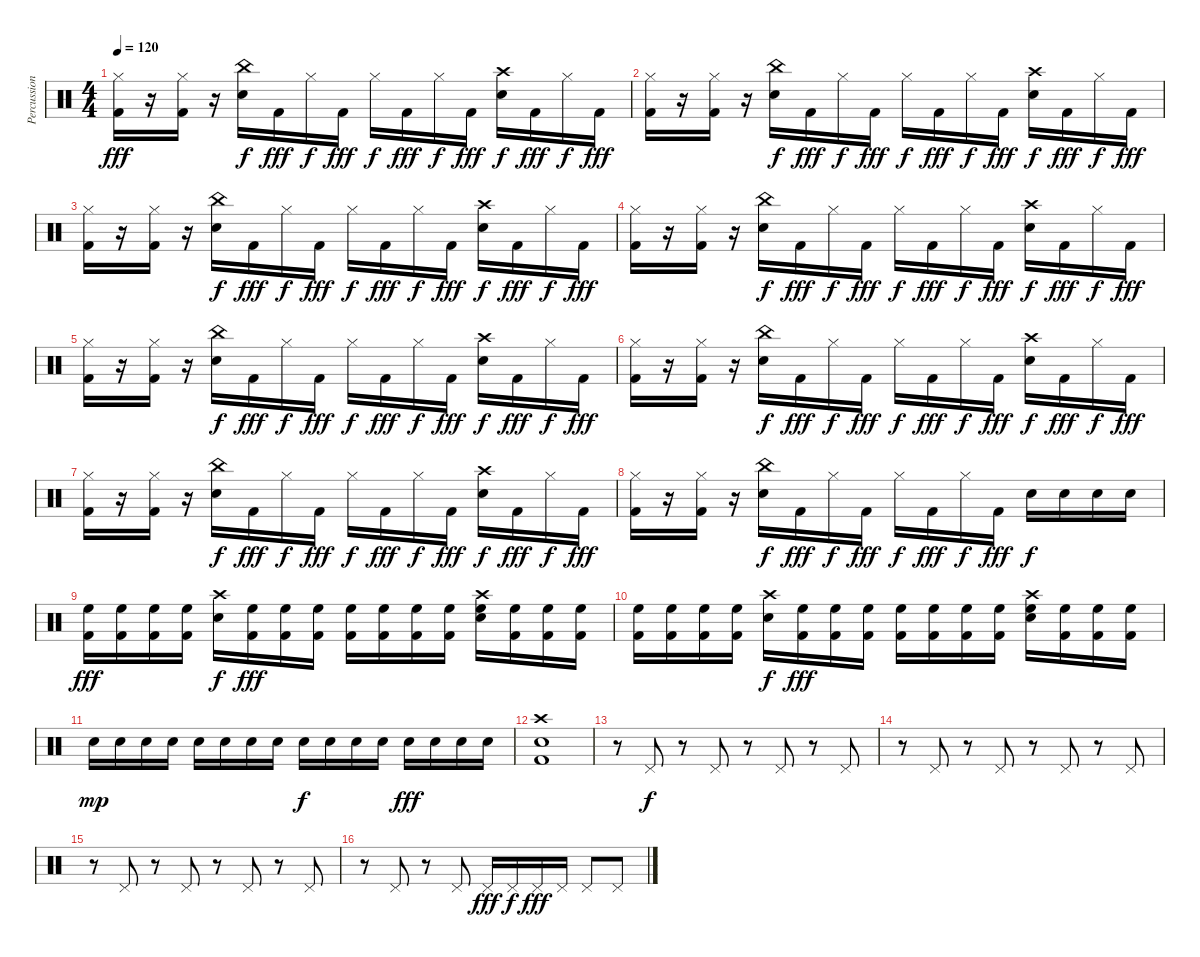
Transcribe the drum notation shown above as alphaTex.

\track ("Percussions" "Percussion") {instrument percussion}
\staff {score}
\articulation defaults
\ts (4 4)
\tempo 120
\clef neutral
\ks c
("Hi-Hat (closed)" "Kick (hit) 2").16{dy fff} r.16 ("Hi-Hat (closed)" "Kick (hit) 2").16 r.16 ("China (hit)" "Snare (hit) 2").16{dy f} "Kick (hit) 2".16{dy fff} "Hi-Hat (closed)".16{dy f} "Kick (hit) 2".16{dy fff} "Hi-Hat (closed)".16{dy f} "Kick (hit) 2".16{dy fff} "Hi-Hat (closed)".16{dy f} "Kick (hit) 2".16{dy fff} ("Crash high (hit)" "Snare (hit) 2").16{dy f} "Kick (hit) 2".16{dy fff} "Hi-Hat (closed)".16{dy f} "Kick (hit) 2".16{dy fff} |
("Hi-Hat (closed)" "Kick (hit) 2").16 r.16 ("Hi-Hat (closed)" "Kick (hit) 2").16 r.16 ("China (hit)" "Snare (hit) 2").16{dy f} "Kick (hit) 2".16{dy fff} "Hi-Hat (closed)".16{dy f} "Kick (hit) 2".16{dy fff} "Hi-Hat (closed)".16{dy f} "Kick (hit) 2".16{dy fff} "Hi-Hat (closed)".16{dy f} "Kick (hit) 2".16{dy fff} ("Crash high (hit)" "Snare (hit) 2").16{dy f} "Kick (hit) 2".16{dy fff} "Hi-Hat (closed)".16{dy f} "Kick (hit) 2".16{dy fff} |
("Hi-Hat (closed)" "Kick (hit) 2").16 r.16 ("Hi-Hat (closed)" "Kick (hit) 2").16 r.16 ("China (hit)" "Snare (hit) 2").16{dy f} "Kick (hit) 2".16{dy fff} "Hi-Hat (closed)".16{dy f} "Kick (hit) 2".16{dy fff} "Hi-Hat (closed)".16{dy f} "Kick (hit) 2".16{dy fff} "Hi-Hat (closed)".16{dy f} "Kick (hit) 2".16{dy fff} ("Crash high (hit)" "Snare (hit) 2").16{dy f} "Kick (hit) 2".16{dy fff} "Hi-Hat (closed)".16{dy f} "Kick (hit) 2".16{dy fff} |
("Hi-Hat (closed)" "Kick (hit) 2").16 r.16 ("Hi-Hat (closed)" "Kick (hit) 2").16 r.16 ("China (hit)" "Snare (hit) 2").16{dy f} "Kick (hit) 2".16{dy fff} "Hi-Hat (closed)".16{dy f} "Kick (hit) 2".16{dy fff} "Hi-Hat (closed)".16{dy f} "Kick (hit) 2".16{dy fff} "Hi-Hat (closed)".16{dy f} "Kick (hit) 2".16{dy fff} ("Crash high (hit)" "Snare (hit) 2").16{dy f} "Kick (hit) 2".16{dy fff} "Hi-Hat (closed)".16{dy f} "Kick (hit) 2".16{dy fff} |
("Hi-Hat (closed)" "Kick (hit) 2").16 r.16 ("Hi-Hat (closed)" "Kick (hit) 2").16 r.16 ("China (hit)" "Snare (hit) 2").16{dy f} "Kick (hit) 2".16{dy fff} "Hi-Hat (closed)".16{dy f} "Kick (hit) 2".16{dy fff} "Hi-Hat (closed)".16{dy f} "Kick (hit) 2".16{dy fff} "Hi-Hat (closed)".16{dy f} "Kick (hit) 2".16{dy fff} ("Crash high (hit)" "Snare (hit) 2").16{dy f} "Kick (hit) 2".16{dy fff} "Hi-Hat (closed)".16{dy f} "Kick (hit) 2".16{dy fff} |
("Hi-Hat (closed)" "Kick (hit) 2").16 r.16 ("Hi-Hat (closed)" "Kick (hit) 2").16 r.16 ("China (hit)" "Snare (hit) 2").16{dy f} "Kick (hit) 2".16{dy fff} "Hi-Hat (closed)".16{dy f} "Kick (hit) 2".16{dy fff} "Hi-Hat (closed)".16{dy f} "Kick (hit) 2".16{dy fff} "Hi-Hat (closed)".16{dy f} "Kick (hit) 2".16{dy fff} ("Crash high (hit)" "Snare (hit) 2").16{dy f} "Kick (hit) 2".16{dy fff} "Hi-Hat (closed)".16{dy f} "Kick (hit) 2".16{dy fff} |
("Hi-Hat (closed)" "Kick (hit) 2").16 r.16 ("Hi-Hat (closed)" "Kick (hit) 2").16 r.16 ("China (hit)" "Snare (hit) 2").16{dy f} "Kick (hit) 2".16{dy fff} "Hi-Hat (closed)".16{dy f} "Kick (hit) 2".16{dy fff} "Hi-Hat (closed)".16{dy f} "Kick (hit) 2".16{dy fff} "Hi-Hat (closed)".16{dy f} "Kick (hit) 2".16{dy fff} ("Crash high (hit)" "Snare (hit) 2").16{dy f} "Kick (hit) 2".16{dy fff} "Hi-Hat (closed)".16{dy f} "Kick (hit) 2".16{dy fff} |
("Hi-Hat (closed)" "Kick (hit) 2").16 r.16 ("Hi-Hat (closed)" "Kick (hit) 2").16 r.16 ("China (hit)" "Snare (hit) 2").16{dy f} "Kick (hit) 2".16{dy fff} "Hi-Hat (closed)".16{dy f} "Kick (hit) 2".16{dy fff} "Hi-Hat (closed)".16{dy f} "Kick (hit) 2".16{dy fff} "Hi-Hat (closed)".16{dy f} "Kick (hit) 2".16{dy fff} "Snare (hit) 2".16{dy f} "Snare (hit) 2".16 "Snare (hit) 2".16 "Snare (hit) 2".16 |
("Kick (hit) 2" "High Floor Tom (hit)").16{dy fff} ("Kick (hit) 2" "High Floor Tom (hit)").16 ("Kick (hit) 2" "High Floor Tom (hit)").16 ("Kick (hit) 2" "High Floor Tom (hit)").16 ("Crash high (hit)" "Snare (hit) 2").16{dy f} ("Kick (hit) 2" "High Floor Tom (hit)").16{dy fff} ("Kick (hit) 2" "High Floor Tom (hit)").16 ("Kick (hit) 2" "High Floor Tom (hit)").16 ("Kick (hit) 2" "High Floor Tom (hit)").16 ("Kick (hit) 2" "High Floor Tom (hit)").16 ("Kick (hit) 2" "High Floor Tom (hit)").16 ("Kick (hit) 2" "High Floor Tom (hit)").16 ("Crash high (hit)" "Snare (hit) 2" "High Floor Tom (hit)").16 ("Kick (hit) 2" "High Floor Tom (hit)").16 ("Kick (hit) 2" "High Floor Tom (hit)").16 ("Kick (hit) 2" "High Floor Tom (hit)").16 |
("Kick (hit) 2" "High Floor Tom (hit)").16 ("Kick (hit) 2" "High Floor Tom (hit)").16 ("Kick (hit) 2" "High Floor Tom (hit)").16 ("Kick (hit) 2" "High Floor Tom (hit)").16 ("Crash high (hit)" "Snare (hit) 2").16{dy f} ("Kick (hit) 2" "High Floor Tom (hit)").16{dy fff} ("Kick (hit) 2" "High Floor Tom (hit)").16 ("Kick (hit) 2" "High Floor Tom (hit)").16 ("Kick (hit) 2" "High Floor Tom (hit)").16 ("Kick (hit) 2" "High Floor Tom (hit)").16 ("Kick (hit) 2" "High Floor Tom (hit)").16 ("Kick (hit) 2" "High Floor Tom (hit)").16 ("Crash high (hit)" "Snare (hit) 2" "High Floor Tom (hit)").16 ("Kick (hit) 2" "High Floor Tom (hit)").16 ("Kick (hit) 2" "High Floor Tom (hit)").16 ("Kick (hit) 2" "High Floor Tom (hit)").16 |
"Snare (hit) 2".16{dy mp} "Snare (hit) 2".16 "Snare (hit) 2".16 "Snare (hit) 2".16 "Snare (hit) 2".16 "Snare (hit) 2".16 "Snare (hit) 2".16 "Snare (hit) 2".16 "Snare (hit) 2".16{dy f} "Snare (hit) 2".16 "Snare (hit) 2".16 "Snare (hit) 2".16 "Snare (hit) 2".16{dy fff} "Snare (hit) 2".16 "Snare (hit) 2".16 "Snare (hit) 2".16 |
("Crash high (hit)" "Kick (hit) 2" "Snare (hit) 2").1 |
r.8 "Pedal Hi-Hat (hit)".8{dy f} r.8 "Pedal Hi-Hat (hit)".8 r.8 "Pedal Hi-Hat (hit)".8 r.8 "Pedal Hi-Hat (hit)".8 |
r.8 "Pedal Hi-Hat (hit)".8 r.8 "Pedal Hi-Hat (hit)".8 r.8 "Pedal Hi-Hat (hit)".8 r.8 "Pedal Hi-Hat (hit)".8 |
r.8 "Pedal Hi-Hat (hit)".8 r.8 "Pedal Hi-Hat (hit)".8 r.8 "Pedal Hi-Hat (hit)".8 r.8 "Pedal Hi-Hat (hit)".8 |
r.8 "Pedal Hi-Hat (hit)".8 r.8 "Pedal Hi-Hat (hit)".8 "Pedal Hi-Hat (hit)".16{dy fff} "Pedal Hi-Hat (hit)".16{dy f} "Pedal Hi-Hat (hit)".16{dy fff} "Pedal Hi-Hat (hit)".16 "Pedal Hi-Hat (hit)".8 "Pedal Hi-Hat (hit)".8
